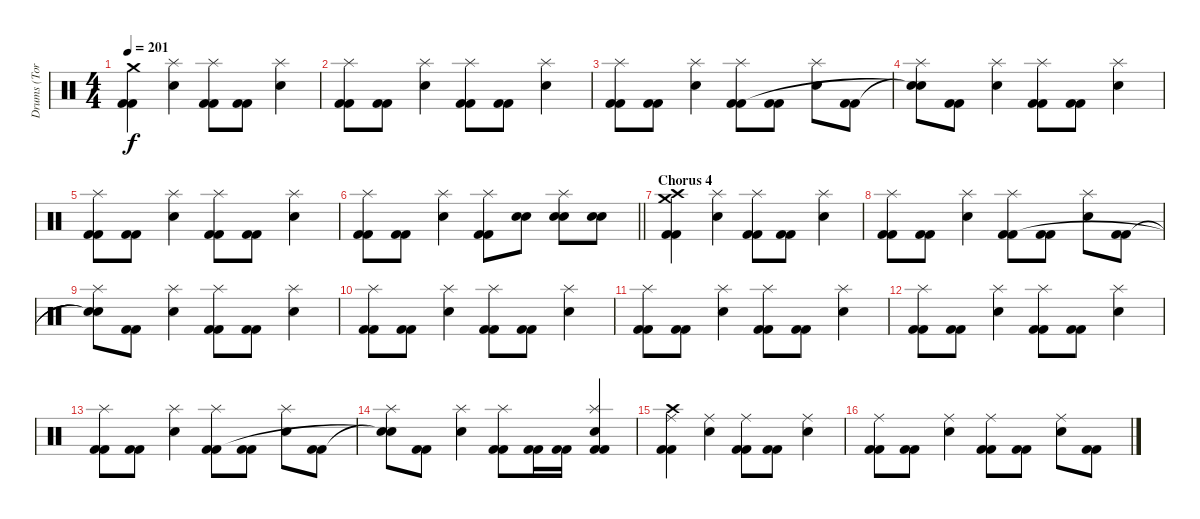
\track ("Drums (Tora)" "Drums (Tor") {instrument percussion}
\staff {score}
\articulation defaults
\ts (4 4)
\tempo 201
\clef neutral
\ks c
("Crash medium (hit)" "Kick (hit) 2" "Kick (hit) 2").4{dy f} ("Splash (hit)" "Snare (hit) 2").4 ("Splash (hit)" "Kick (hit) 2" "Kick (hit) 2").8 ("Kick (hit) 2" "Kick (hit) 2").8 ("Splash (hit)" "Snare (hit) 2").4 |
("Splash (hit)" "Kick (hit) 2" "Kick (hit) 2").8 ("Kick (hit) 2" "Kick (hit) 2").8 ("Splash (hit)" "Snare (hit) 2").4 ("Splash (hit)" "Kick (hit) 2" "Kick (hit) 2").8 ("Kick (hit) 2" "Kick (hit) 2").8 ("Splash (hit)" "Snare (hit) 2").4 |
("Splash (hit)" "Kick (hit) 2" "Kick (hit) 2").8 ("Kick (hit) 2" "Kick (hit) 2").8 ("Splash (hit)" "Snare (hit) 2").4 ("Splash (hit)" "Kick (hit) 2" "Kick (hit) 2").8 ("Kick (hit) 2" "Kick (hit) 2").8 ("Splash (hit)" "Snare (hit) 2").8 ("Kick (hit) 2" "Kick (hit) 2").8 |
("Splash (hit)" "Snare (hit)"{t} "Snare (hit)"{t}).8 ("Kick (hit) 2" "Kick (hit) 2").8 ("Splash (hit)" "Snare (hit) 2").4 ("Splash (hit)" "Kick (hit) 2" "Kick (hit) 2").8 ("Kick (hit) 2" "Kick (hit) 2").8 ("Splash (hit)" "Snare (hit) 2").4 |
("Splash (hit)" "Kick (hit) 2" "Kick (hit) 2").8 ("Kick (hit) 2" "Kick (hit) 2").8 ("Splash (hit)" "Snare (hit) 2").4 ("Splash (hit)" "Kick (hit) 2" "Kick (hit) 2").8 ("Kick (hit) 2" "Kick (hit) 2").8 ("Splash (hit)" "Snare (hit) 2").4 |
\barLineRight lightlight
("Splash (hit)" "Kick (hit) 2" "Kick (hit) 2").8 ("Kick (hit) 2" "Kick (hit) 2").8 ("Splash (hit)" "Snare (hit) 2").4 ("Splash (hit)" "Kick (hit) 2" "Kick (hit) 2").8 ("Snare (hit) 2" "Snare (hit) 2").8 ("Splash (hit)" "Snare (hit) 2" "Snare (hit) 2").8 ("Snare (hit) 2" "Snare (hit) 2").8 |
\section ("" "Chorus 4")
("Crash high (hit)" "Crash medium (hit)" "Kick (hit) 2" "Kick (hit) 2").4 ("Splash (hit)" "Snare (hit) 2").4 ("Splash (hit)" "Kick (hit) 2" "Kick (hit) 2").8 ("Kick (hit) 2" "Kick (hit) 2").8 ("Splash (hit)" "Snare (hit) 2").4 |
("Splash (hit)" "Kick (hit) 2" "Kick (hit) 2").8 ("Kick (hit) 2" "Kick (hit) 2").8 ("Splash (hit)" "Snare (hit) 2").4 ("Splash (hit)" "Kick (hit) 2" "Kick (hit) 2").8 ("Kick (hit) 2" "Kick (hit) 2").8 ("Splash (hit)" "Snare (hit) 2").8 ("Kick (hit) 2" "Kick (hit) 2").8 |
("Splash (hit)" "Snare (hit)"{t} "Snare (hit)"{t}).8 ("Kick (hit) 2" "Kick (hit) 2").8 ("Splash (hit)" "Snare (hit) 2").4 ("Splash (hit)" "Kick (hit) 2" "Kick (hit) 2").8 ("Kick (hit) 2" "Kick (hit) 2").8 ("Splash (hit)" "Snare (hit) 2").4 |
("Splash (hit)" "Kick (hit) 2" "Kick (hit) 2").8 ("Kick (hit) 2" "Kick (hit) 2").8 ("Splash (hit)" "Snare (hit) 2").4 ("Splash (hit)" "Kick (hit) 2" "Kick (hit) 2").8 ("Kick (hit) 2" "Kick (hit) 2").8 ("Splash (hit)" "Snare (hit) 2").4 |
("Splash (hit)" "Kick (hit) 2" "Kick (hit) 2").8 ("Kick (hit) 2" "Kick (hit) 2").8 ("Splash (hit)" "Snare (hit) 2").4 ("Splash (hit)" "Kick (hit) 2" "Kick (hit) 2").8 ("Kick (hit) 2" "Kick (hit) 2").8 ("Splash (hit)" "Snare (hit) 2").4 |
("Splash (hit)" "Kick (hit) 2" "Kick (hit) 2").8 ("Kick (hit) 2" "Kick (hit) 2").8 ("Splash (hit)" "Snare (hit) 2").4 ("Splash (hit)" "Kick (hit) 2" "Kick (hit) 2").8 ("Kick (hit) 2" "Kick (hit) 2").8 ("Splash (hit)" "Snare (hit) 2").4 |
("Splash (hit)" "Kick (hit) 2" "Kick (hit) 2").8 ("Kick (hit) 2" "Kick (hit) 2").8 ("Splash (hit)" "Snare (hit) 2").4 ("Splash (hit)" "Kick (hit) 2" "Kick (hit) 2").8 ("Kick (hit) 2" "Kick (hit) 2").8 ("Splash (hit)" "Snare (hit) 2").8 ("Kick (hit) 2" "Kick (hit) 2").8 |
("Splash (hit)" "Snare (hit)"{t} "Snare (hit)"{t}).8 ("Kick (hit) 2" "Kick (hit) 2").8 ("Splash (hit)" "Snare (hit) 2").4 ("Splash (hit)" "Kick (hit) 2" "Kick (hit) 2").8 ("Kick (hit) 2" "Kick (hit) 2").16 ("Kick (hit) 2" "Kick (hit) 2").16 ("Splash (hit)" "Snare (hit) 2" "Kick (hit) 2" "Kick (hit) 2").4 |
("Crash high (hit)" "Ride (middle)" "Kick (hit) 2" "Kick (hit) 2").4 ("Ride (middle)" "Snare (hit) 2").4 ("Ride (middle)" "Kick (hit) 2" "Kick (hit) 2").8 ("Kick (hit) 2" "Kick (hit) 2").8 ("Ride (middle)" "Snare (hit) 2").4 |
("Ride (middle)" "Kick (hit) 2" "Kick (hit) 2").8 ("Kick (hit) 2" "Kick (hit) 2").8 ("Ride (middle)" "Snare (hit) 2").4 ("Ride (middle)" "Kick (hit) 2" "Kick (hit) 2").8 ("Kick (hit) 2" "Kick (hit) 2").8 ("Ride (middle)" "Snare (hit) 2").8 ("Kick (hit) 2" "Kick (hit) 2").8
